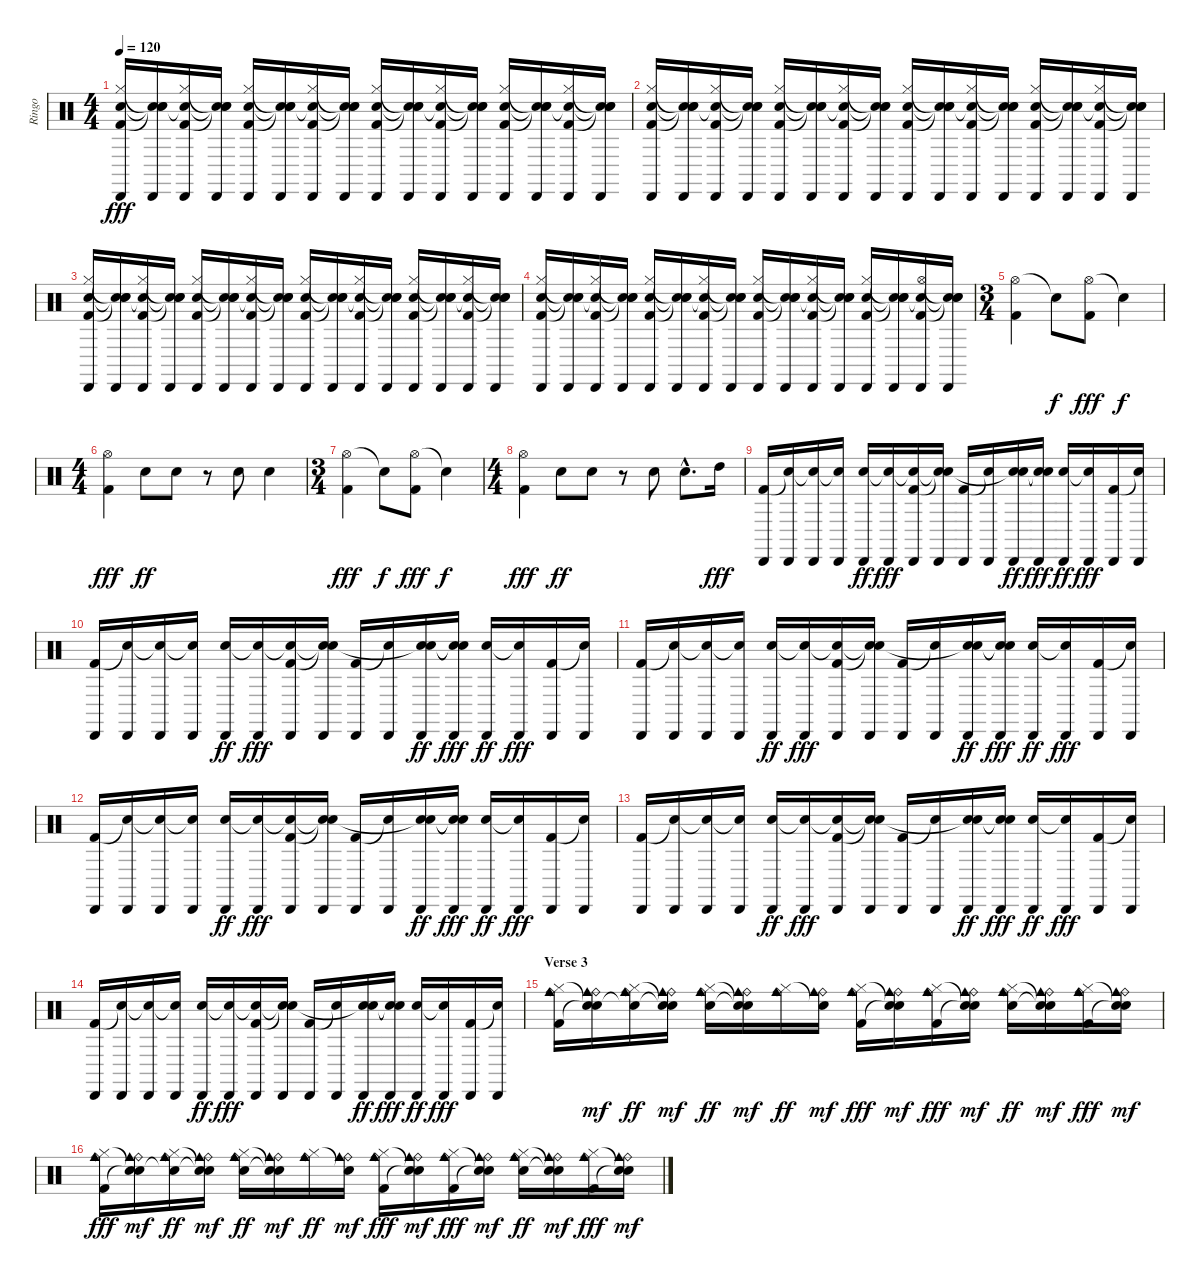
\track ("Ringo" "Ringo") {instrument percussion}
\staff {score}
\articulation defaults
\ts (4 4)
\tempo 120
\clef neutral
\ks c
("Cabasa (hit)" "Hi-Hat (closed)" "Electric Snare (hit)" "Kick (hit) 2").16{dy fff} ("Cabasa (hit)" "Snare (hit)"{t} "Snare (hit)"{t} "Snare (hit)"{t}).16 ("Cabasa (hit)" "Hi-Hat (closed)" "Electric Snare (hit)"{t} "Kick (hit) 2").16 ("Cabasa (hit)" "Snare (hit)"{t} "Snare (hit)"{t} "Snare (hit)"{t}).16 ("Cabasa (hit)" "Hi-Hat (closed)" "Electric Snare (hit)" "Kick (hit) 2").16 ("Cabasa (hit)" "Snare (hit)"{t} "Snare (hit)"{t} "Snare (hit)"{t}).16 ("Cabasa (hit)" "Hi-Hat (closed)" "Snare (hit)"{t} "Kick (hit) 2").16 ("Cabasa (hit)" "Snare (hit)"{t} "Snare (hit)"{t} "Snare (hit)"{t}).16 ("Cabasa (hit)" "Hi-Hat (closed)" "Electric Snare (hit)" "Kick (hit) 2").16 ("Cabasa (hit)" "Snare (hit)"{t} "Snare (hit)"{t} "Snare (hit)"{t}).16 ("Cabasa (hit)" "Hi-Hat (closed)" "Snare (hit)"{t} "Kick (hit) 2").16 ("Cabasa (hit)" "Snare (hit)"{t} "Snare (hit)"{t} "Snare (hit)"{t}).16 ("Cabasa (hit)" "Hi-Hat (closed)" "Electric Snare (hit)" "Kick (hit) 2").16 ("Cabasa (hit)" "Snare (hit)"{t} "Snare (hit)"{t} "Snare (hit)"{t}).16 ("Cabasa (hit)" "Hi-Hat (closed)" "Snare (hit)"{t} "Kick (hit) 2").16 ("Cabasa (hit)" "Snare (hit)"{t} "Snare (hit)"{t} "Snare (hit)"{t}).16 |
("Cabasa (hit)" "Hi-Hat (closed)" "Electric Snare (hit)" "Kick (hit) 2").16 ("Cabasa (hit)" "Snare (hit)"{t} "Snare (hit)"{t} "Snare (hit)"{t}).16 ("Cabasa (hit)" "Hi-Hat (closed)" "Electric Snare (hit)"{t} "Kick (hit) 2").16 ("Cabasa (hit)" "Snare (hit)"{t} "Snare (hit)"{t} "Snare (hit)"{t}).16 ("Cabasa (hit)" "Hi-Hat (closed)" "Electric Snare (hit)" "Kick (hit) 2").16 ("Cabasa (hit)" "Snare (hit)"{t} "Snare (hit)"{t} "Snare (hit)"{t}).16 ("Cabasa (hit)" "Hi-Hat (closed)" "Snare (hit)"{t} "Kick (hit) 2").16 ("Cabasa (hit)" "Snare (hit)"{t} "Snare (hit)"{t} "Snare (hit)"{t}).16 ("Cabasa (hit)" "Hi-Hat (closed)" "Electric Snare (hit)" "Kick (hit) 2").16 ("Cabasa (hit)" "Snare (hit)"{t} "Snare (hit)"{t} "Snare (hit)"{t}).16 ("Cabasa (hit)" "Hi-Hat (closed)" "Snare (hit)"{t} "Kick (hit) 2").16 ("Cabasa (hit)" "Snare (hit)"{t} "Snare (hit)"{t} "Snare (hit)"{t}).16 ("Cabasa (hit)" "Hi-Hat (closed)" "Electric Snare (hit)" "Kick (hit) 2").16 ("Cabasa (hit)" "Snare (hit)"{t} "Snare (hit)"{t} "Snare (hit)"{t}).16 ("Cabasa (hit)" "Hi-Hat (closed)" "Snare (hit)"{t} "Kick (hit) 2").16 ("Cabasa (hit)" "Snare (hit)"{t} "Snare (hit)"{t} "Snare (hit)"{t}).16 |
("Cabasa (hit)" "Hi-Hat (closed)" "Electric Snare (hit)" "Kick (hit) 2").16 ("Cabasa (hit)" "Snare (hit)"{t} "Snare (hit)"{t} "Snare (hit)"{t}).16 ("Cabasa (hit)" "Hi-Hat (closed)" "Electric Snare (hit)"{t} "Kick (hit) 2").16 ("Cabasa (hit)" "Snare (hit)"{t} "Snare (hit)"{t} "Snare (hit)"{t}).16 ("Cabasa (hit)" "Hi-Hat (closed)" "Electric Snare (hit)" "Kick (hit) 2").16 ("Cabasa (hit)" "Snare (hit)"{t} "Snare (hit)"{t} "Snare (hit)"{t}).16 ("Cabasa (hit)" "Hi-Hat (closed)" "Snare (hit)"{t} "Kick (hit) 2").16 ("Cabasa (hit)" "Snare (hit)"{t} "Snare (hit)"{t} "Snare (hit)"{t}).16 ("Cabasa (hit)" "Hi-Hat (closed)" "Electric Snare (hit)" "Kick (hit) 2").16 ("Cabasa (hit)" "Snare (hit)"{t} "Snare (hit)"{t} "Snare (hit)"{t}).16 ("Cabasa (hit)" "Hi-Hat (closed)" "Snare (hit)"{t} "Kick (hit) 2").16 ("Cabasa (hit)" "Snare (hit)"{t} "Snare (hit)"{t} "Snare (hit)"{t}).16 ("Cabasa (hit)" "Hi-Hat (closed)" "Electric Snare (hit)" "Kick (hit) 2").16 ("Cabasa (hit)" "Snare (hit)"{t} "Snare (hit)"{t} "Snare (hit)"{t}).16 ("Cabasa (hit)" "Hi-Hat (closed)" "Snare (hit)"{t} "Kick (hit) 2").16 ("Cabasa (hit)" "Snare (hit)"{t} "Snare (hit)"{t} "Snare (hit)"{t}).16 |
("Cabasa (hit)" "Hi-Hat (closed)" "Electric Snare (hit)" "Kick (hit) 2").16 ("Cabasa (hit)" "Snare (hit)"{t} "Snare (hit)"{t} "Snare (hit)"{t}).16 ("Cabasa (hit)" "Hi-Hat (closed)" "Electric Snare (hit)"{t} "Kick (hit) 2").16 ("Cabasa (hit)" "Snare (hit)"{t} "Snare (hit)"{t} "Snare (hit)"{t}).16 ("Cabasa (hit)" "Hi-Hat (closed)" "Electric Snare (hit)" "Kick (hit) 2").16 ("Cabasa (hit)" "Snare (hit)"{t} "Snare (hit)"{t} "Snare (hit)"{t}).16 ("Cabasa (hit)" "Hi-Hat (closed)" "Snare (hit)"{t} "Kick (hit) 2").16 ("Cabasa (hit)" "Snare (hit)"{t} "Snare (hit)"{t} "Snare (hit)"{t}).16 ("Cabasa (hit)" "Hi-Hat (closed)" "Electric Snare (hit)" "Kick (hit) 2").16 ("Cabasa (hit)" "Snare (hit)"{t} "Snare (hit)"{t} "Snare (hit)"{t}).16 ("Cabasa (hit)" "Hi-Hat (closed)" "Snare (hit)"{t} "Kick (hit) 2").16 ("Cabasa (hit)" "Snare (hit)"{t} "Snare (hit)"{t} "Snare (hit)"{t}).16 ("Cabasa (hit)" "Hi-Hat (closed)" "Electric Snare (hit)" "Kick (hit) 2").16 ("Cabasa (hit)" "Snare (hit)"{t} "Snare (hit)"{t} "Snare (hit)"{t}).16 ("Cabasa (hit)" "Hi-Hat (open)" "Snare (hit)"{t} "Kick (hit) 2").16 ("Cabasa (hit)" "Snare (hit)"{t} "Snare (hit)"{t} "Snare (hit)"{t}).16 |
\ts (3 4)
("Hi-Hat (open)" "Kick (hit) 2").4 "Snare (hit)"{t}.8{dy f} ("Hi-Hat (open)" "Kick (hit) 2").8{dy fff} "Snare (hit)"{t}.4{dy f} |
\ts (4 4)
("Hi-Hat (open)" "Kick (hit) 2").4{dy fff} "Electric Snare (hit)".8{dy ff} "Electric Snare (hit)".8 r.8 "Electric Snare (hit)".8 "Electric Snare (hit)".4 |
\ts (3 4)
("Hi-Hat (open)" "Kick (hit) 2").4{dy fff} "Snare (hit)"{t}.8{dy f} ("Hi-Hat (open)" "Kick (hit) 2").8{dy fff} "Snare (hit)"{t}.4{dy f} |
\ts (4 4)
("Hi-Hat (open)" "Kick (hit) 2").4{dy fff} "Electric Snare (hit)".8{dy ff} "Electric Snare (hit)".8 r.8 "Electric Snare (hit)".8 "Electric Snare (hit)"{hac}.8{d} "High Tom (hit)".16{dy fff} |
("Cabasa (hit)" "Kick (hit) 2").16 ("Cabasa (hit)" "Snare (hit)"{t}).16 ("Cabasa (hit)" "Snare (hit)"{t}).16 ("Cabasa (hit)" "Snare (hit)"{t}).16 ("Cabasa (hit)" "Electric Snare (hit)").16{dy ff} ("Cabasa (hit)" "Snare (hit)"{t}).16{dy fff} ("Cabasa (hit)" "Snare (hit)"{t} "Kick (hit) 2").16 ("Cabasa (hit)" "Snare (hit)"{t} "Snare (hit)"{t}).16 ("Cabasa (hit)" "Kick (hit) 2").16 ("Cabasa (hit)" "Snare (hit)"{t}).16 ("Cabasa (hit)" "Electric Snare (hit)" "Snare (hit)"{t}).16{dy ff} ("Cabasa (hit)" "Snare (hit)"{t} "Snare (hit)"{t}).16{dy fff} ("Cabasa (hit)" "Electric Snare (hit)").16{dy ff} ("Cabasa (hit)" "Snare (hit)"{t}).16{dy fff} ("Cabasa (hit)" "Kick (hit) 2").16 ("Cabasa (hit)" "Snare (hit)"{t}).16 |
("Cabasa (hit)" "Kick (hit) 2").16 ("Cabasa (hit)" "Snare (hit)"{t}).16 ("Cabasa (hit)" "Snare (hit)"{t}).16 ("Cabasa (hit)" "Snare (hit)"{t}).16 ("Cabasa (hit)" "Electric Snare (hit)").16{dy ff} ("Cabasa (hit)" "Snare (hit)"{t}).16{dy fff} ("Cabasa (hit)" "Snare (hit)"{t} "Kick (hit) 2").16 ("Cabasa (hit)" "Snare (hit)"{t} "Snare (hit)"{t}).16 ("Cabasa (hit)" "Kick (hit) 2").16 ("Cabasa (hit)" "Snare (hit)"{t}).16 ("Cabasa (hit)" "Electric Snare (hit)" "Snare (hit)"{t}).16{dy ff} ("Cabasa (hit)" "Snare (hit)"{t} "Snare (hit)"{t}).16{dy fff} ("Cabasa (hit)" "Electric Snare (hit)").16{dy ff} ("Cabasa (hit)" "Snare (hit)"{t}).16{dy fff} ("Cabasa (hit)" "Kick (hit) 2").16 ("Cabasa (hit)" "Snare (hit)"{t}).16 |
("Cabasa (hit)" "Kick (hit) 2").16 ("Cabasa (hit)" "Snare (hit)"{t}).16 ("Cabasa (hit)" "Snare (hit)"{t}).16 ("Cabasa (hit)" "Snare (hit)"{t}).16 ("Cabasa (hit)" "Electric Snare (hit)").16{dy ff} ("Cabasa (hit)" "Snare (hit)"{t}).16{dy fff} ("Cabasa (hit)" "Snare (hit)"{t} "Kick (hit) 2").16 ("Cabasa (hit)" "Snare (hit)"{t} "Snare (hit)"{t}).16 ("Cabasa (hit)" "Kick (hit) 2").16 ("Cabasa (hit)" "Snare (hit)"{t}).16 ("Cabasa (hit)" "Electric Snare (hit)" "Snare (hit)"{t}).16{dy ff} ("Cabasa (hit)" "Snare (hit)"{t} "Snare (hit)"{t}).16{dy fff} ("Cabasa (hit)" "Electric Snare (hit)").16{dy ff} ("Cabasa (hit)" "Snare (hit)"{t}).16{dy fff} ("Cabasa (hit)" "Kick (hit) 2").16 ("Cabasa (hit)" "Snare (hit)"{t}).16 |
("Cabasa (hit)" "Kick (hit) 2").16 ("Cabasa (hit)" "Snare (hit)"{t}).16 ("Cabasa (hit)" "Snare (hit)"{t}).16 ("Cabasa (hit)" "Snare (hit)"{t}).16 ("Cabasa (hit)" "Electric Snare (hit)").16{dy ff} ("Cabasa (hit)" "Snare (hit)"{t}).16{dy fff} ("Cabasa (hit)" "Snare (hit)"{t} "Kick (hit) 2").16 ("Cabasa (hit)" "Snare (hit)"{t} "Snare (hit)"{t}).16 ("Cabasa (hit)" "Kick (hit) 2").16 ("Cabasa (hit)" "Snare (hit)"{t}).16 ("Cabasa (hit)" "Electric Snare (hit)" "Snare (hit)"{t}).16{dy ff} ("Cabasa (hit)" "Snare (hit)"{t} "Snare (hit)"{t}).16{dy fff} ("Cabasa (hit)" "Electric Snare (hit)").16{dy ff} ("Cabasa (hit)" "Snare (hit)"{t}).16{dy fff} ("Cabasa (hit)" "Kick (hit) 2").16 ("Cabasa (hit)" "Snare (hit)"{t}).16 |
("Cabasa (hit)" "Kick (hit) 2").16 ("Cabasa (hit)" "Snare (hit)"{t}).16 ("Cabasa (hit)" "Snare (hit)"{t}).16 ("Cabasa (hit)" "Snare (hit)"{t}).16 ("Cabasa (hit)" "Electric Snare (hit)").16{dy ff} ("Cabasa (hit)" "Snare (hit)"{t}).16{dy fff} ("Cabasa (hit)" "Snare (hit)"{t} "Kick (hit) 2").16 ("Cabasa (hit)" "Snare (hit)"{t} "Snare (hit)"{t}).16 ("Cabasa (hit)" "Kick (hit) 2").16 ("Cabasa (hit)" "Snare (hit)"{t}).16 ("Cabasa (hit)" "Electric Snare (hit)" "Snare (hit)"{t}).16{dy ff} ("Cabasa (hit)" "Snare (hit)"{t} "Snare (hit)"{t}).16{dy fff} ("Cabasa (hit)" "Electric Snare (hit)").16{dy ff} ("Cabasa (hit)" "Snare (hit)"{t}).16{dy fff} ("Cabasa (hit)" "Kick (hit) 2").16 ("Cabasa (hit)" "Snare (hit)"{t}).16 |
("Cabasa (hit)" "Kick (hit) 2").16 ("Cabasa (hit)" "Snare (hit)"{t}).16 ("Cabasa (hit)" "Snare (hit)"{t}).16 ("Cabasa (hit)" "Snare (hit)"{t}).16 ("Cabasa (hit)" "Electric Snare (hit)").16{dy ff} ("Cabasa (hit)" "Snare (hit)"{t}).16{dy fff} ("Cabasa (hit)" "Snare (hit)"{t} "Kick (hit) 2").16 ("Cabasa (hit)" "Snare (hit)"{t} "Snare (hit)"{t}).16 ("Cabasa (hit)" "Kick (hit) 2").16 ("Cabasa (hit)" "Snare (hit)"{t}).16 ("Cabasa (hit)" "Electric Snare (hit)" "Snare (hit)"{t}).16{dy ff} ("Cabasa (hit)" "Snare (hit)"{t} "Snare (hit)"{t}).16{dy fff} ("Cabasa (hit)" "Electric Snare (hit)").16{dy ff} ("Cabasa (hit)" "Snare (hit)"{t}).16{dy fff} ("Cabasa (hit)" "Kick (hit) 2").16 ("Cabasa (hit)" "Snare (hit)"{t}).16 |
\section ("" "Verse 3")
("Ride (bell)" "Cowbell medium (hit)" "Hi-Hat (closed)" "Kick (hit) 2").16 ("Ride (bell)" "Cowbell medium (hit)" "Snare (hit)"{t} "Snare (hit)"{t}).16{dy mf} ("Ride (bell)" "Cowbell medium (hit)" "Hi-Hat (closed)" "Snare (hit)"{t}).16{dy ff} ("Ride (bell)" "Cowbell medium (hit)" "Snare (hit)"{t} "Snare (hit)"{t}).16{dy mf} ("Ride (bell)" "Cowbell medium (hit)" "Hi-Hat (closed)" "Electric Snare (hit)").16{dy ff} ("Ride (bell)" "Cowbell medium (hit)" "Snare (hit)"{t} "Snare (hit)"{t}).16{dy mf} ("Ride (bell)" "Cowbell medium (hit)" "Hi-Hat (closed)").16{dy ff} ("Ride (bell)" "Cowbell medium (hit)" "Snare (hit)"{t}).16{dy mf} ("Ride (bell)" "Cowbell medium (hit)" "Hi-Hat (closed)" "Kick (hit) 2").16{dy fff} ("Ride (bell)" "Cowbell medium (hit)" "Snare (hit)"{t} "Snare (hit)"{t}).16{dy mf} ("Ride (bell)" "Cowbell medium (hit)" "Hi-Hat (closed)" "Kick (hit) 2").16{dy fff} ("Ride (bell)" "Cowbell medium (hit)" "Snare (hit)"{t} "Snare (hit)"{t}).16{dy mf} ("Ride (bell)" "Cowbell medium (hit)" "Hi-Hat (closed)" "Electric Snare (hit)").16{dy ff} ("Ride (bell)" "Cowbell medium (hit)" "Snare (hit)"{t} "Snare (hit)"{t}).16{dy mf} ("Ride (bell)" "Cowbell medium (hit)" "Hi-Hat (closed)" "Kick (hit) 2").16{dy fff} ("Ride (bell)" "Cowbell medium (hit)" "Snare (hit)"{t} "Snare (hit)"{t}).16{dy mf} |
("Ride (bell)" "Cowbell medium (hit)" "Hi-Hat (closed)" "Kick (hit) 2").16{dy fff} ("Ride (bell)" "Cowbell medium (hit)" "Snare (hit)"{t} "Snare (hit)"{t}).16{dy mf} ("Ride (bell)" "Cowbell medium (hit)" "Hi-Hat (closed)" "Snare (hit)"{t}).16{dy ff} ("Ride (bell)" "Cowbell medium (hit)" "Snare (hit)"{t} "Snare (hit)"{t}).16{dy mf} ("Ride (bell)" "Cowbell medium (hit)" "Hi-Hat (closed)" "Electric Snare (hit)").16{dy ff} ("Ride (bell)" "Cowbell medium (hit)" "Snare (hit)"{t} "Snare (hit)"{t}).16{dy mf} ("Ride (bell)" "Cowbell medium (hit)" "Hi-Hat (closed)").16{dy ff} ("Ride (bell)" "Cowbell medium (hit)" "Snare (hit)"{t}).16{dy mf} ("Ride (bell)" "Cowbell medium (hit)" "Hi-Hat (closed)" "Kick (hit) 2").16{dy fff} ("Ride (bell)" "Cowbell medium (hit)" "Snare (hit)"{t} "Snare (hit)"{t}).16{dy mf} ("Ride (bell)" "Cowbell medium (hit)" "Hi-Hat (closed)" "Kick (hit) 2").16{dy fff} ("Ride (bell)" "Cowbell medium (hit)" "Snare (hit)"{t} "Snare (hit)"{t}).16{dy mf} ("Ride (bell)" "Cowbell medium (hit)" "Hi-Hat (closed)" "Electric Snare (hit)").16{dy ff} ("Ride (bell)" "Cowbell medium (hit)" "Snare (hit)"{t} "Snare (hit)"{t}).16{dy mf} ("Ride (bell)" "Cowbell medium (hit)" "Hi-Hat (closed)" "Kick (hit) 2").16{dy fff} ("Ride (bell)" "Cowbell medium (hit)" "Snare (hit)"{t} "Snare (hit)"{t}).16{dy mf}
